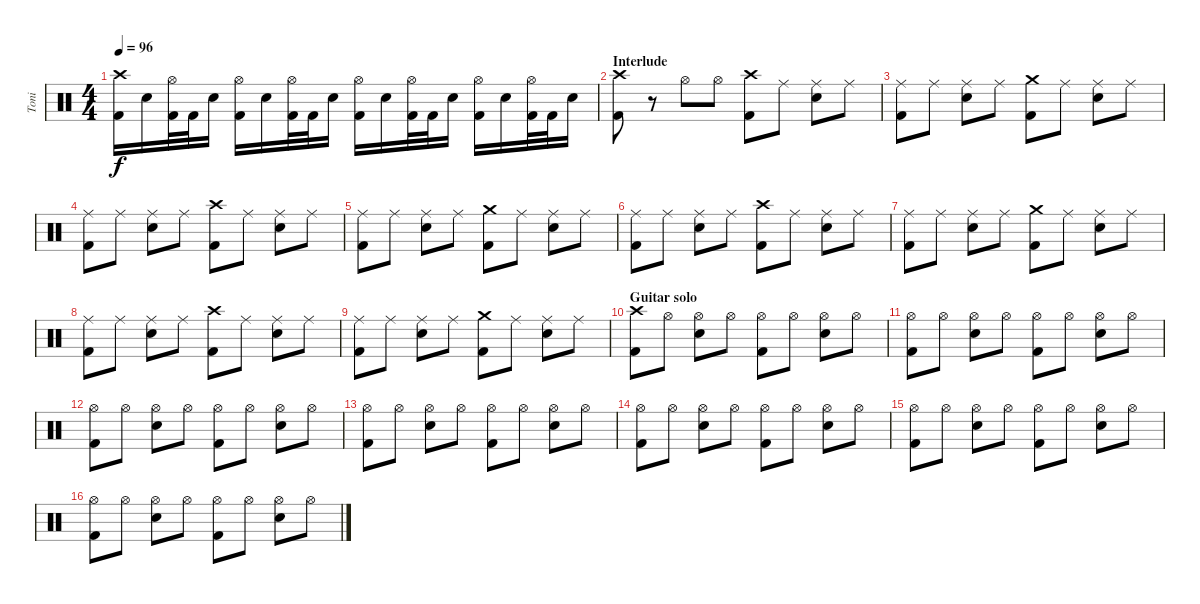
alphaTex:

\track ("Toni" "Toni") {instrument percussion}
\staff {score}
\articulation defaults
\ts (4 4)
\tempo 96
\clef neutral
\ks c
("Crash high (hit)" "Kick (hit) 2").16{dy f} "Electric Snare (hit)".16 ("Hi-Hat (open)" "Kick (hit) 2").32 "Kick (hit) 2".32 "Electric Snare (hit)".16 ("Hi-Hat (open)" "Kick (hit) 2").16 "Electric Snare (hit)".16 ("Hi-Hat (open)" "Kick (hit) 2").32 "Kick (hit) 2".32 "Electric Snare (hit)".16 ("Hi-Hat (open)" "Kick (hit) 2").16 "Electric Snare (hit)".16 ("Hi-Hat (open)" "Kick (hit) 2").32 "Kick (hit) 2".32 "Electric Snare (hit)".16 ("Hi-Hat (open)" "Kick (hit) 2").16 "Electric Snare (hit)".16 ("Hi-Hat (open)" "Kick (hit) 2").32 "Kick (hit) 2".32 "Electric Snare (hit)".16 |
\section ("" "Interlude")
("Crash high (hit)" "Kick (hit) 2").8 r.8 "Hi-Hat (open)".8 "Hi-Hat (open)".8 ("Crash high (hit)" "Kick (hit) 2").8 "Ride (middle)".8 ("Ride (middle)" "Electric Snare (hit)").8 "Ride (middle)".8 |
("Ride (middle)" "Kick (hit) 2").8 "Ride (middle)".8 ("Ride (middle)" "Electric Snare (hit)").8 "Ride (middle)".8 ("Crash medium (hit)" "Kick (hit) 2").8 "Ride (middle)".8 ("Ride (middle)" "Electric Snare (hit)").8 "Ride (middle)".8 |
("Ride (middle)" "Kick (hit) 2").8 "Ride (middle)".8 ("Ride (middle)" "Electric Snare (hit)").8 "Ride (middle)".8 ("Crash high (hit)" "Kick (hit) 2").8 "Ride (middle)".8 ("Ride (middle)" "Electric Snare (hit)").8 "Ride (middle)".8 |
("Ride (middle)" "Kick (hit) 2").8 "Ride (middle)".8 ("Ride (middle)" "Electric Snare (hit)").8 "Ride (middle)".8 ("Crash medium (hit)" "Kick (hit) 2").8 "Ride (middle)".8 ("Ride (middle)" "Electric Snare (hit)").8 "Ride (middle)".8 |
("Ride (middle)" "Kick (hit) 2").8 "Ride (middle)".8 ("Ride (middle)" "Electric Snare (hit)").8 "Ride (middle)".8 ("Crash high (hit)" "Kick (hit) 2").8 "Ride (middle)".8 ("Ride (middle)" "Electric Snare (hit)").8 "Ride (middle)".8 |
("Ride (middle)" "Kick (hit) 2").8 "Ride (middle)".8 ("Ride (middle)" "Electric Snare (hit)").8 "Ride (middle)".8 ("Crash medium (hit)" "Kick (hit) 2").8 "Ride (middle)".8 ("Ride (middle)" "Electric Snare (hit)").8 "Ride (middle)".8 |
("Ride (middle)" "Kick (hit) 2").8 "Ride (middle)".8 ("Ride (middle)" "Electric Snare (hit)").8 "Ride (middle)".8 ("Crash high (hit)" "Kick (hit) 2").8 "Ride (middle)".8 ("Ride (middle)" "Electric Snare (hit)").8 "Ride (middle)".8 |
("Ride (middle)" "Kick (hit) 2").8 "Ride (middle)".8 ("Ride (middle)" "Electric Snare (hit)").8 "Ride (middle)".8 ("Crash medium (hit)" "Kick (hit) 2").8 "Ride (middle)".8 ("Ride (middle)" "Electric Snare (hit)").8 "Ride (middle)".8 |
\section ("" "Guitar solo")
("Crash high (hit)" "Kick (hit) 2").8 "Hi-Hat (open)".8 ("Hi-Hat (open)" "Electric Snare (hit)").8 "Hi-Hat (open)".8 ("Hi-Hat (open)" "Kick (hit) 2").8 "Hi-Hat (open)".8 ("Hi-Hat (open)" "Electric Snare (hit)").8 "Hi-Hat (open)".8 |
("Hi-Hat (open)" "Kick (hit) 2").8 "Hi-Hat (open)".8 ("Hi-Hat (open)" "Electric Snare (hit)").8 "Hi-Hat (open)".8 ("Hi-Hat (open)" "Kick (hit) 2").8 "Hi-Hat (open)".8 ("Hi-Hat (open)" "Electric Snare (hit)").8 "Hi-Hat (open)".8 |
("Hi-Hat (open)" "Kick (hit) 2").8 "Hi-Hat (open)".8 ("Hi-Hat (open)" "Electric Snare (hit)").8 "Hi-Hat (open)".8 ("Hi-Hat (open)" "Kick (hit) 2").8 "Hi-Hat (open)".8 ("Hi-Hat (open)" "Electric Snare (hit)").8 "Hi-Hat (open)".8 |
("Hi-Hat (open)" "Kick (hit) 2").8 "Hi-Hat (open)".8 ("Hi-Hat (open)" "Electric Snare (hit)").8 "Hi-Hat (open)".8 ("Hi-Hat (open)" "Kick (hit) 2").8 "Hi-Hat (open)".8 ("Hi-Hat (open)" "Electric Snare (hit)").8 "Hi-Hat (open)".8 |
("Hi-Hat (open)" "Kick (hit) 2").8 "Hi-Hat (open)".8 ("Hi-Hat (open)" "Electric Snare (hit)").8 "Hi-Hat (open)".8 ("Hi-Hat (open)" "Kick (hit) 2").8 "Hi-Hat (open)".8 ("Hi-Hat (open)" "Electric Snare (hit)").8 "Hi-Hat (open)".8 |
("Hi-Hat (open)" "Kick (hit) 2").8 "Hi-Hat (open)".8 ("Hi-Hat (open)" "Electric Snare (hit)").8 "Hi-Hat (open)".8 ("Hi-Hat (open)" "Kick (hit) 2").8 "Hi-Hat (open)".8 ("Hi-Hat (open)" "Electric Snare (hit)").8 "Hi-Hat (open)".8 |
("Hi-Hat (open)" "Kick (hit) 2").8 "Hi-Hat (open)".8 ("Hi-Hat (open)" "Electric Snare (hit)").8 "Hi-Hat (open)".8 ("Hi-Hat (open)" "Kick (hit) 2").8 "Hi-Hat (open)".8 ("Hi-Hat (open)" "Electric Snare (hit)").8 "Hi-Hat (open)".8
